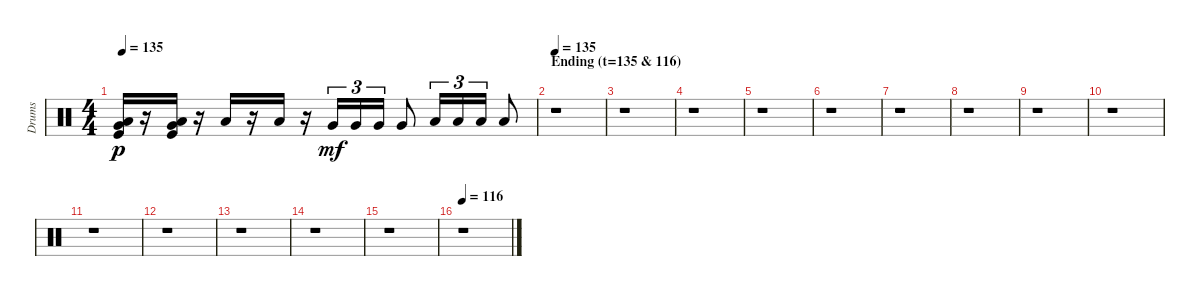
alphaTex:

\track ("Drums" "Drums") {instrument percussion}
\staff {score}
\articulation defaults
\ts (4 4)
\tempo 135
\clef neutral
\ks c
("Kick (hit)" "Low Floor Tom (hit)" "Very Low Tom (hit)").16{dy p} r.16 ("Kick (hit)" "Low Floor Tom (hit)" "Very Low Tom (hit)").16 r.16 "Low Floor Tom (hit)".16 r.16 "Low Floor Tom (hit)".16 r.16 "Very Low Tom (hit)".16{tu (3 2) dy mf} "Very Low Tom (hit)".16{tu (3 2)} "Very Low Tom (hit)".16{tu (3 2)} "Very Low Tom (hit)".8 "Low Floor Tom (hit)".16{tu (3 2)} "Low Floor Tom (hit)".16{tu (3 2)} "Low Floor Tom (hit)".16{tu (3 2)} "Low Floor Tom (hit)".8 |
\section ("" "Ending (t=135 & 116)")
\tempo 135
r.1 |
r.1 |
r.1 |
r.1 |
r.1 |
r.1 |
r.1 |
r.1 |
r.1 |
r.1 |
r.1 |
r.1 |
r.1 |
r.1 |
\tempo 116
r.1
